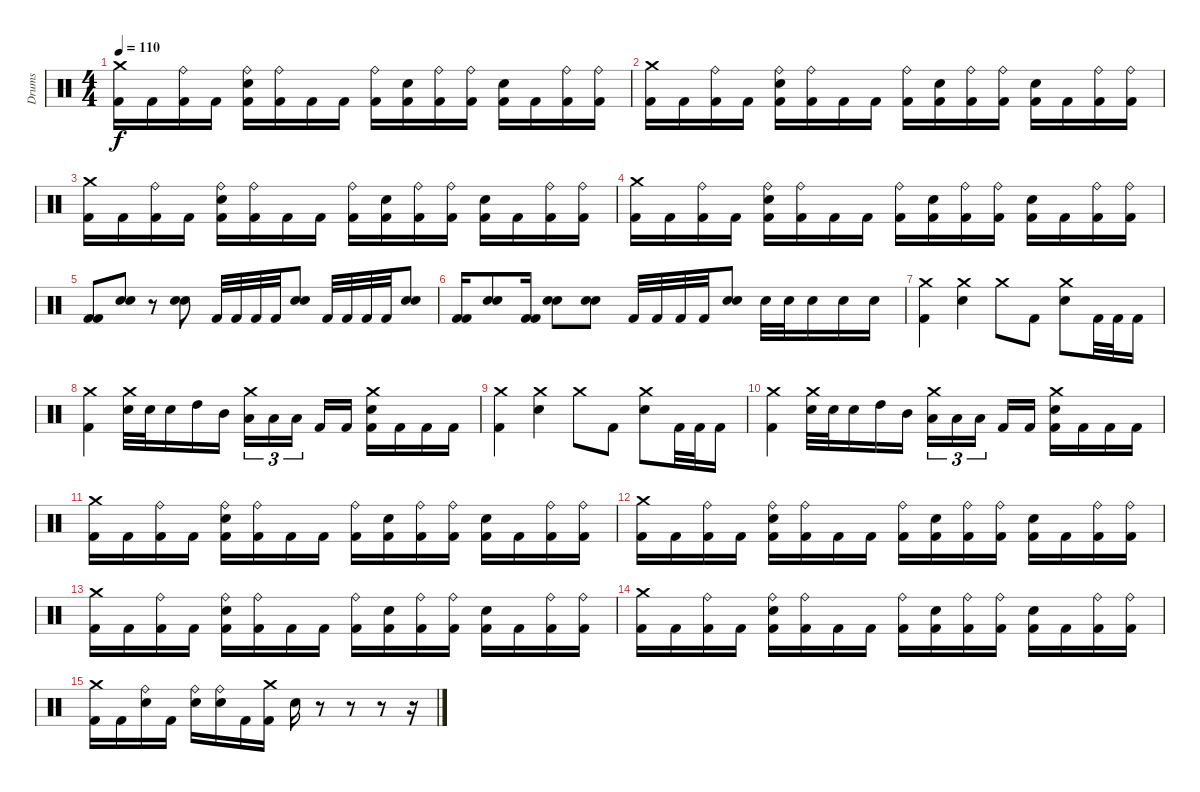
\track ("Drums" "Drums") {instrument percussion}
\staff {score}
\articulation defaults
\ts (4 4)
\tempo 110
\clef neutral
\ks c
("Crash medium (hit)" "Kick (hit) 2").16{dy f} "Kick (hit) 2".16 ("Ride (bell)" "Kick (hit) 2").16 "Kick (hit) 2".16 ("Ride (bell)" "Electric Snare (hit)" "Kick (hit) 2").16 ("Ride (bell)" "Kick (hit) 2").16 "Kick (hit) 2".16 "Kick (hit) 2".16 ("Ride (bell)" "Kick (hit) 2").16 ("Electric Snare (hit)" "Kick (hit) 2").16 ("Ride (bell)" "Kick (hit) 2").16 ("Ride (bell)" "Kick (hit) 2").16 ("Electric Snare (hit)" "Kick (hit) 2").16 "Kick (hit) 2".16 ("Ride (bell)" "Kick (hit) 2").16 ("Ride (bell)" "Kick (hit) 2").16 |
("Crash medium (hit)" "Kick (hit) 2").16 "Kick (hit) 2".16 ("Ride (bell)" "Kick (hit) 2").16 "Kick (hit) 2".16 ("Ride (bell)" "Electric Snare (hit)" "Kick (hit) 2").16 ("Ride (bell)" "Kick (hit) 2").16 "Kick (hit) 2".16 "Kick (hit) 2".16 ("Ride (bell)" "Kick (hit) 2").16 ("Electric Snare (hit)" "Kick (hit) 2").16 ("Ride (bell)" "Kick (hit) 2").16 ("Ride (bell)" "Kick (hit) 2").16 ("Electric Snare (hit)" "Kick (hit) 2").16 "Kick (hit) 2".16 ("Ride (bell)" "Kick (hit) 2").16 ("Ride (bell)" "Kick (hit) 2").16 |
("Crash medium (hit)" "Kick (hit) 2").16 "Kick (hit) 2".16 ("Ride (bell)" "Kick (hit) 2").16 "Kick (hit) 2".16 ("Ride (bell)" "Electric Snare (hit)" "Kick (hit) 2").16 ("Ride (bell)" "Kick (hit) 2").16 "Kick (hit) 2".16 "Kick (hit) 2".16 ("Ride (bell)" "Kick (hit) 2").16 ("Electric Snare (hit)" "Kick (hit) 2").16 ("Ride (bell)" "Kick (hit) 2").16 ("Ride (bell)" "Kick (hit) 2").16 ("Electric Snare (hit)" "Kick (hit) 2").16 "Kick (hit) 2".16 ("Ride (bell)" "Kick (hit) 2").16 ("Ride (bell)" "Kick (hit) 2").16 |
("Crash medium (hit)" "Kick (hit) 2").16 "Kick (hit) 2".16 ("Ride (bell)" "Kick (hit) 2").16 "Kick (hit) 2".16 ("Ride (bell)" "Electric Snare (hit)" "Kick (hit) 2").16 ("Ride (bell)" "Kick (hit) 2").16 "Kick (hit) 2".16 "Kick (hit) 2".16 ("Ride (bell)" "Kick (hit) 2").16 ("Electric Snare (hit)" "Kick (hit) 2").16 ("Ride (bell)" "Kick (hit) 2").16 ("Ride (bell)" "Kick (hit) 2").16 ("Electric Snare (hit)" "Kick (hit) 2").16 "Kick (hit) 2".16 ("Ride (bell)" "Kick (hit) 2").16 ("Ride (bell)" "Kick (hit) 2").16 |
("Kick (hit) 2" "Kick (hit) 2").8 ("Hand Clap (hit)" "Hand Clap (hit)").8 r.8 ("Hand Clap (hit)" "Hand Clap (hit)").8 "Kick (hit) 2".32 "Kick (hit) 2".32 "Kick (hit) 2".32 "Kick (hit) 2".32 ("Hand Clap (hit)" "Hand Clap (hit)").8 "Kick (hit) 2".32 "Kick (hit) 2".32 "Kick (hit) 2".32 "Kick (hit) 2".32 ("Hand Clap (hit)" "Hand Clap (hit)").8 |
("Kick (hit) 2" "Kick (hit) 2").16 ("Hand Clap (hit)" "Hand Clap (hit)").8 ("Kick (hit) 2" "Kick (hit) 2").16 ("Hand Clap (hit)" "Hand Clap (hit)").8 ("Hand Clap (hit)" "Hand Clap (hit)").8 "Kick (hit) 2".32 "Kick (hit) 2".32 "Kick (hit) 2".32 "Kick (hit) 2".32 ("Hand Clap (hit)" "Hand Clap (hit)").8 "Electric Snare (hit)".32 "Electric Snare (hit)".32 "Electric Snare (hit)".16 "Electric Snare (hit)".16 "Electric Snare (hit)".16 |
("Crash medium (hit)" "Kick (hit) 2").4 ("Crash medium (hit)" "Electric Snare (hit)").4 "Crash medium (hit)".8 "Kick (hit) 2".8 ("Crash medium (hit)" "Electric Snare (hit)").8 "Kick (hit) 2".32 "Kick (hit) 2".32 "Kick (hit) 2".16 |
("Crash medium (hit)" "Kick (hit) 2").4 ("Crash medium (hit)" "Electric Snare (hit)").32 "Electric Snare (hit)".32 "Electric Snare (hit)".16 "High Tom (hit)".16 "Mid Tom (hit)".16 ("Crash medium (hit)" "Low Tom (hit)").16{tu (3 2)} "Low Tom (hit)".16{tu (3 2)} "Low Tom (hit)".16{tu (3 2)} "Kick (hit) 2".16 "Kick (hit) 2".16 ("Crash medium (hit)" "Electric Snare (hit)" "Kick (hit) 2").16 "Kick (hit) 2".16 "Kick (hit) 2".16 "Kick (hit) 2".16 |
("Crash medium (hit)" "Kick (hit) 2").4 ("Crash medium (hit)" "Electric Snare (hit)").4 "Crash medium (hit)".8 "Kick (hit) 2".8 ("Crash medium (hit)" "Electric Snare (hit)").8 "Kick (hit) 2".32 "Kick (hit) 2".32 "Kick (hit) 2".16 |
("Crash medium (hit)" "Kick (hit) 2").4 ("Crash medium (hit)" "Electric Snare (hit)").32 "Electric Snare (hit)".32 "Electric Snare (hit)".16 "High Tom (hit)".16 "Mid Tom (hit)".16 ("Crash medium (hit)" "Low Tom (hit)").16{tu (3 2)} "Low Tom (hit)".16{tu (3 2)} "Low Tom (hit)".16{tu (3 2)} "Kick (hit) 2".16 "Kick (hit) 2".16 ("Crash medium (hit)" "Electric Snare (hit)" "Kick (hit) 2").16 "Kick (hit) 2".16 "Kick (hit) 2".16 "Kick (hit) 2".16 |
("Crash medium (hit)" "Kick (hit) 2").16 "Kick (hit) 2".16 ("Ride (bell)" "Kick (hit) 2").16 "Kick (hit) 2".16 ("Ride (bell)" "Electric Snare (hit)" "Kick (hit) 2").16 ("Ride (bell)" "Kick (hit) 2").16 "Kick (hit) 2".16 "Kick (hit) 2".16 ("Ride (bell)" "Kick (hit) 2").16 ("Electric Snare (hit)" "Kick (hit) 2").16 ("Ride (bell)" "Kick (hit) 2").16 ("Ride (bell)" "Kick (hit) 2").16 ("Electric Snare (hit)" "Kick (hit) 2").16 "Kick (hit) 2".16 ("Ride (bell)" "Kick (hit) 2").16 ("Ride (bell)" "Kick (hit) 2").16 |
("Crash medium (hit)" "Kick (hit) 2").16 "Kick (hit) 2".16 ("Ride (bell)" "Kick (hit) 2").16 "Kick (hit) 2".16 ("Ride (bell)" "Electric Snare (hit)" "Kick (hit) 2").16 ("Ride (bell)" "Kick (hit) 2").16 "Kick (hit) 2".16 "Kick (hit) 2".16 ("Ride (bell)" "Kick (hit) 2").16 ("Electric Snare (hit)" "Kick (hit) 2").16 ("Ride (bell)" "Kick (hit) 2").16 ("Ride (bell)" "Kick (hit) 2").16 ("Electric Snare (hit)" "Kick (hit) 2").16 "Kick (hit) 2".16 ("Ride (bell)" "Kick (hit) 2").16 ("Ride (bell)" "Kick (hit) 2").16 |
("Crash medium (hit)" "Kick (hit) 2").16 "Kick (hit) 2".16 ("Ride (bell)" "Kick (hit) 2").16 "Kick (hit) 2".16 ("Ride (bell)" "Electric Snare (hit)" "Kick (hit) 2").16 ("Ride (bell)" "Kick (hit) 2").16 "Kick (hit) 2".16 "Kick (hit) 2".16 ("Ride (bell)" "Kick (hit) 2").16 ("Electric Snare (hit)" "Kick (hit) 2").16 ("Ride (bell)" "Kick (hit) 2").16 ("Ride (bell)" "Kick (hit) 2").16 ("Electric Snare (hit)" "Kick (hit) 2").16 "Kick (hit) 2".16 ("Ride (bell)" "Kick (hit) 2").16 ("Ride (bell)" "Kick (hit) 2").16 |
("Crash medium (hit)" "Kick (hit) 2").16 "Kick (hit) 2".16 ("Ride (bell)" "Kick (hit) 2").16 "Kick (hit) 2".16 ("Ride (bell)" "Electric Snare (hit)" "Kick (hit) 2").16 ("Ride (bell)" "Kick (hit) 2").16 "Kick (hit) 2".16 "Kick (hit) 2".16 ("Ride (bell)" "Kick (hit) 2").16 ("Electric Snare (hit)" "Kick (hit) 2").16 ("Ride (bell)" "Kick (hit) 2").16 ("Ride (bell)" "Kick (hit) 2").16 ("Electric Snare (hit)" "Kick (hit) 2").16 "Kick (hit) 2".16 ("Ride (bell)" "Kick (hit) 2").16 ("Ride (bell)" "Kick (hit) 2").16 |
("Crash medium (hit)" "Kick (hit) 2").16 "Kick (hit) 2".16 ("Ride (bell)" "Electric Snare (hit)").16 "Kick (hit) 2".16 ("Ride (bell)" "Electric Snare (hit)").16 ("Ride (bell)" "Electric Snare (hit)").16 "Kick (hit) 2".16 ("Crash medium (hit)" "Kick (hit) 2").16 "Electric Snare (hit)".16 r.8{volume 0} r.8 r.8 r.16
